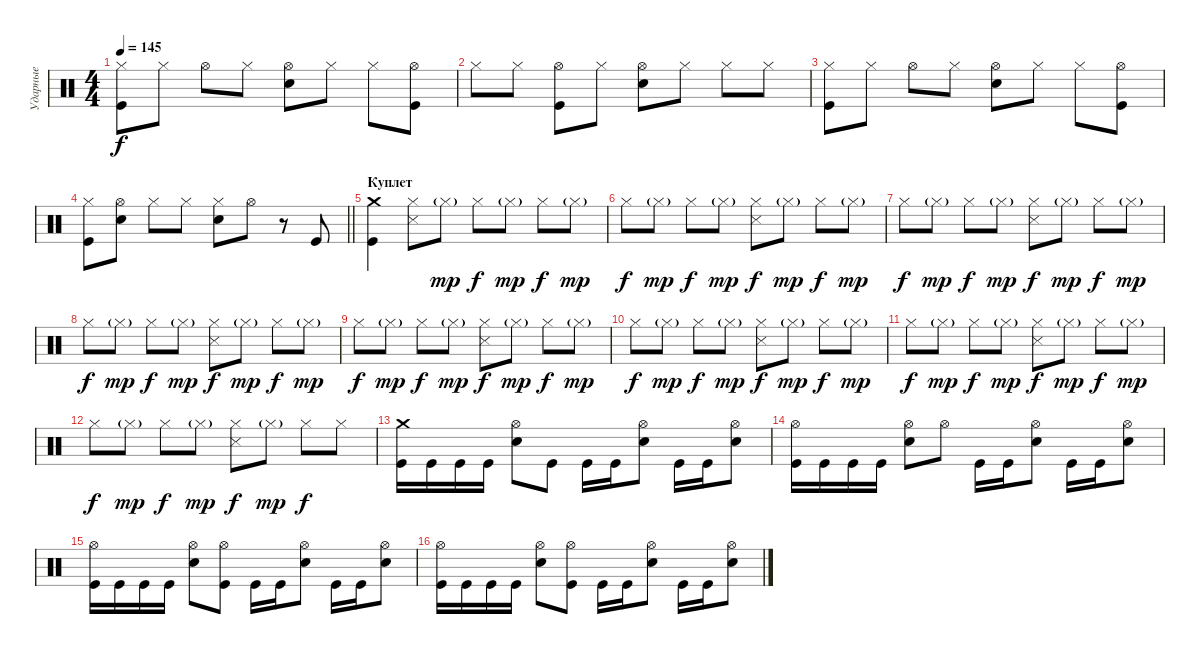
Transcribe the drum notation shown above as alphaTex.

\track ("Ударные" "Ударные") {instrument percussion}
\staff {score}
\articulation defaults
\ts (4 4)
\tempo 145
\clef neutral
\ks c
("Kick (hit)" "Hi-Hat (closed)").8{dy f} "Hi-Hat (closed)".8 "Hi-Hat (open)".8 "Hi-Hat (closed)".8 ("Snare (hit) 2" "Hi-Hat (open)").8 "Hi-Hat (closed)".8 "Hi-Hat (closed)".8 ("Kick (hit)" "Hi-Hat (open)").8 |
"Hi-Hat (closed)".8 "Hi-Hat (closed)".8 ("Kick (hit)" "Hi-Hat (open)").8 "Hi-Hat (closed)".8 ("Snare (hit) 2" "Hi-Hat (open)").8 "Hi-Hat (closed)".8 "Hi-Hat (closed)".8 "Hi-Hat (closed)".8 |
("Kick (hit)" "Hi-Hat (closed)").8 "Hi-Hat (closed)".8 "Hi-Hat (open)".8 "Hi-Hat (closed)".8 ("Snare (hit) 2" "Hi-Hat (open)").8 "Hi-Hat (closed)".8 "Hi-Hat (closed)".8 ("Kick (hit)" "Hi-Hat (open)").8 |
\barLineRight lightlight
("Kick (hit)" "Hi-Hat (closed)").8 ("Snare (hit) 2" "Hi-Hat (open)").8 "Hi-Hat (closed)".8 "Hi-Hat (closed)".8 ("Snare (hit) 2" "Hi-Hat (closed)").8 "Hi-Hat (open)".8 r.8 "Kick (hit)".8 |
\section ("" "Куплет")
("Kick (hit)" "Crash medium (hit)").4 ("Metronome (hit)" "Hi-Hat (closed)").8 "Hi-Hat (closed)"{g}.8{dy mp} "Hi-Hat (closed)".8{dy f} "Hi-Hat (closed)"{g}.8{dy mp} "Hi-Hat (closed)".8{dy f} "Hi-Hat (closed)"{g}.8{dy mp} |
"Hi-Hat (closed)".8{dy f} "Hi-Hat (closed)"{g}.8{dy mp} "Hi-Hat (closed)".8{dy f} "Hi-Hat (closed)"{g}.8{dy mp} ("Metronome (hit)" "Hi-Hat (closed)").8{dy f} "Hi-Hat (closed)"{g}.8{dy mp} "Hi-Hat (closed)".8{dy f} "Hi-Hat (closed)"{g}.8{dy mp} |
"Hi-Hat (closed)".8{dy f} "Hi-Hat (closed)"{g}.8{dy mp} "Hi-Hat (closed)".8{dy f} "Hi-Hat (closed)"{g}.8{dy mp} ("Metronome (hit)" "Hi-Hat (closed)").8{dy f} "Hi-Hat (closed)"{g}.8{dy mp} "Hi-Hat (closed)".8{dy f} "Hi-Hat (closed)"{g}.8{dy mp} |
"Hi-Hat (closed)".8{dy f} "Hi-Hat (closed)"{g}.8{dy mp} "Hi-Hat (closed)".8{dy f} "Hi-Hat (closed)"{g}.8{dy mp} ("Metronome (hit)" "Hi-Hat (closed)").8{dy f} "Hi-Hat (closed)"{g}.8{dy mp} "Hi-Hat (closed)".8{dy f} "Hi-Hat (closed)"{g}.8{dy mp} |
"Hi-Hat (closed)".8{dy f} "Hi-Hat (closed)"{g}.8{dy mp} "Hi-Hat (closed)".8{dy f} "Hi-Hat (closed)"{g}.8{dy mp} ("Metronome (hit)" "Hi-Hat (closed)").8{dy f} "Hi-Hat (closed)"{g}.8{dy mp} "Hi-Hat (closed)".8{dy f} "Hi-Hat (closed)"{g}.8{dy mp} |
"Hi-Hat (closed)".8{dy f} "Hi-Hat (closed)"{g}.8{dy mp} "Hi-Hat (closed)".8{dy f} "Hi-Hat (closed)"{g}.8{dy mp} ("Metronome (hit)" "Hi-Hat (closed)").8{dy f} "Hi-Hat (closed)"{g}.8{dy mp} "Hi-Hat (closed)".8{dy f} "Hi-Hat (closed)"{g}.8{dy mp} |
"Hi-Hat (closed)".8{dy f} "Hi-Hat (closed)"{g}.8{dy mp} "Hi-Hat (closed)".8{dy f} "Hi-Hat (closed)"{g}.8{dy mp} ("Metronome (hit)" "Hi-Hat (closed)").8{dy f} "Hi-Hat (closed)"{g}.8{dy mp} "Hi-Hat (closed)".8{dy f} "Hi-Hat (closed)"{g}.8{dy mp} |
"Hi-Hat (closed)".8{dy f} "Hi-Hat (closed)"{g}.8{dy mp} "Hi-Hat (closed)".8{dy f} "Hi-Hat (closed)"{g}.8{dy mp} ("Metronome (hit)" "Hi-Hat (closed)").8{dy f} "Hi-Hat (closed)"{g}.8{dy mp} "Hi-Hat (closed)".8{dy f} "Hi-Hat (closed)".8 |
("Kick (hit)" "Crash medium (hit)").16 "Kick (hit)".16 "Kick (hit)".16 "Kick (hit)".16 ("Snare (hit) 2" "Hi-Hat (open)").8 "Kick (hit)".8 "Kick (hit)".16 "Kick (hit)".16 ("Snare (hit) 2" "Hi-Hat (open)").8 "Kick (hit)".16 "Kick (hit)".16 ("Snare (hit) 2" "Hi-Hat (open)").8 |
("Kick (hit)" "Hi-Hat (open)").16 "Kick (hit)".16 "Kick (hit)".16 "Kick (hit)".16 ("Snare (hit) 2" "Hi-Hat (open)").8 "Hi-Hat (open)".8 "Kick (hit)".16 "Kick (hit)".16 ("Snare (hit) 2" "Hi-Hat (open)").8 "Kick (hit)".16 "Kick (hit)".16 ("Snare (hit) 2" "Hi-Hat (open)").8 |
("Kick (hit)" "Hi-Hat (open)").16 "Kick (hit)".16 "Kick (hit)".16 "Kick (hit)".16 ("Snare (hit) 2" "Hi-Hat (open)").8 ("Kick (hit)" "Hi-Hat (open)").8 "Kick (hit)".16 "Kick (hit)".16 ("Snare (hit) 2" "Hi-Hat (open)").8 "Kick (hit)".16 "Kick (hit)".16 ("Snare (hit) 2" "Hi-Hat (open)").8 |
("Kick (hit)" "Hi-Hat (open)").16 "Kick (hit)".16 "Kick (hit)".16 "Kick (hit)".16 ("Snare (hit) 2" "Hi-Hat (open)").8 ("Kick (hit)" "Hi-Hat (open)").8 "Kick (hit)".16 "Kick (hit)".16 ("Snare (hit) 2" "Hi-Hat (open)").8 "Kick (hit)".16 "Kick (hit)".16 ("Snare (hit) 2" "Hi-Hat (open)").8
